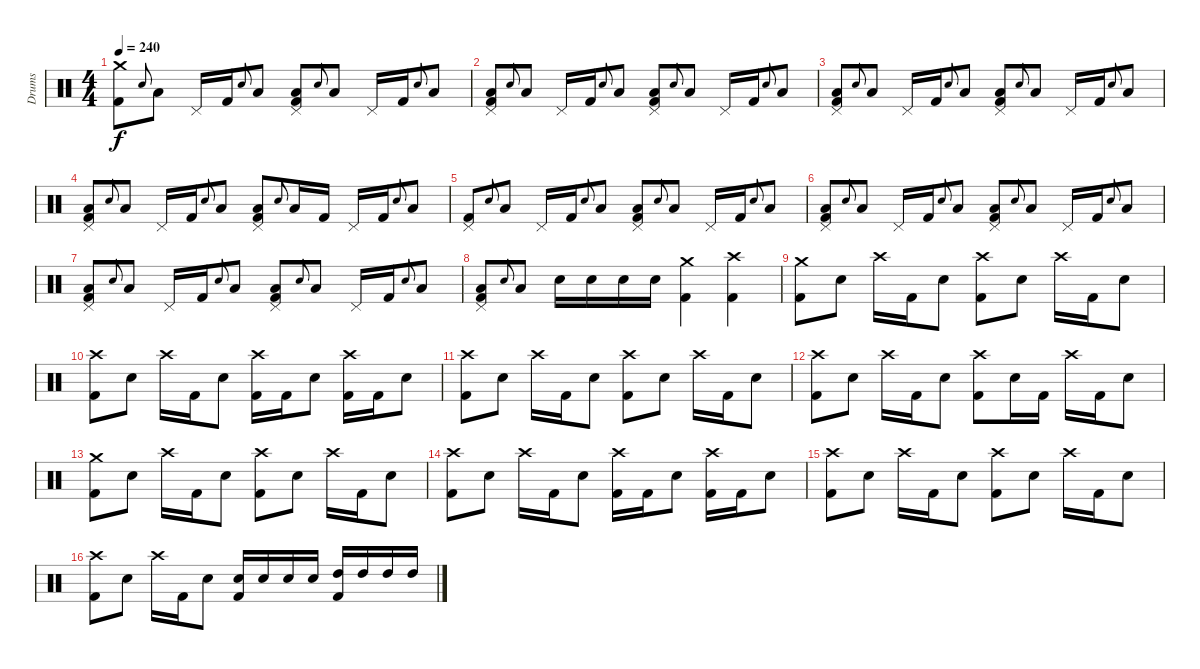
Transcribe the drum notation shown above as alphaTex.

\track ("Drums" "Drums") {instrument percussion}
\staff {score}
\articulation defaults
\ts (4 4)
\tempo 240
\clef neutral
\ks c
("Crash medium (hit)" "Kick (hit) 2").8{dy f} "Electric Snare (hit)".8{gr onbeat} "Low Tom (hit)".8 "Pedal Hi-Hat (hit)".16 "Kick (hit) 2".16 "Electric Snare (hit)".8{gr onbeat} "Low Tom (hit)".8 ("Pedal Hi-Hat (hit)" "Low Tom (hit)" "Kick (hit) 2").8 "Electric Snare (hit)".8{gr onbeat} "Low Tom (hit)".8 "Pedal Hi-Hat (hit)".16 "Kick (hit) 2".16 "Electric Snare (hit)".8{gr onbeat} "Low Tom (hit)".8 |
("Pedal Hi-Hat (hit)" "Low Tom (hit)" "Kick (hit) 2").8 "Electric Snare (hit)".8{gr onbeat} "Low Tom (hit)".8 "Pedal Hi-Hat (hit)".16 "Kick (hit) 2".16 "Electric Snare (hit)".8{gr onbeat} "Low Tom (hit)".8 ("Pedal Hi-Hat (hit)" "Low Tom (hit)" "Kick (hit) 2").8 "Electric Snare (hit)".8{gr onbeat} "Low Tom (hit)".8 "Pedal Hi-Hat (hit)".16 "Kick (hit) 2".16 "Electric Snare (hit)".8{gr onbeat} "Low Tom (hit)".8 |
("Pedal Hi-Hat (hit)" "Low Tom (hit)" "Kick (hit) 2").8 "Electric Snare (hit)".8{gr onbeat} "Low Tom (hit)".8 "Pedal Hi-Hat (hit)".16 "Kick (hit) 2".16 "Electric Snare (hit)".8{gr onbeat} "Low Tom (hit)".8 ("Pedal Hi-Hat (hit)" "Low Tom (hit)" "Kick (hit) 2").8 "Electric Snare (hit)".8{gr onbeat} "Low Tom (hit)".8 "Pedal Hi-Hat (hit)".16 "Kick (hit) 2".16 "Electric Snare (hit)".8{gr onbeat} "Low Tom (hit)".8 |
("Pedal Hi-Hat (hit)" "Low Tom (hit)" "Kick (hit) 2").8 "Electric Snare (hit)".8{gr onbeat} "Low Tom (hit)".8 "Pedal Hi-Hat (hit)".16 "Kick (hit) 2".16 "Electric Snare (hit)".8{gr onbeat} "Low Tom (hit)".8 ("Pedal Hi-Hat (hit)" "Low Tom (hit)" "Kick (hit) 2").8 "Electric Snare (hit)".8{gr onbeat} "Low Tom (hit)".16 "Kick (hit) 2".16 "Pedal Hi-Hat (hit)".16 "Kick (hit) 2".16 "Electric Snare (hit)".8{gr onbeat} "Low Tom (hit)".8 |
("Pedal Hi-Hat (hit)" "Kick (hit) 2").8 "Electric Snare (hit)".8{gr onbeat} "Low Tom (hit)".8 "Pedal Hi-Hat (hit)".16 "Kick (hit) 2".16 "Electric Snare (hit)".8{gr onbeat} "Low Tom (hit)".8 ("Pedal Hi-Hat (hit)" "Low Tom (hit)" "Kick (hit) 2").8 "Electric Snare (hit)".8{gr onbeat} "Low Tom (hit)".8 "Pedal Hi-Hat (hit)".16 "Kick (hit) 2".16 "Electric Snare (hit)".8{gr onbeat} "Low Tom (hit)".8 |
("Pedal Hi-Hat (hit)" "Low Tom (hit)" "Kick (hit) 2").8 "Electric Snare (hit)".8{gr onbeat} "Low Tom (hit)".8 "Pedal Hi-Hat (hit)".16 "Kick (hit) 2".16 "Electric Snare (hit)".8{gr onbeat} "Low Tom (hit)".8 ("Pedal Hi-Hat (hit)" "Low Tom (hit)" "Kick (hit) 2").8 "Electric Snare (hit)".8{gr onbeat} "Low Tom (hit)".8 "Pedal Hi-Hat (hit)".16 "Kick (hit) 2".16 "Electric Snare (hit)".8{gr onbeat} "Low Tom (hit)".8 |
("Pedal Hi-Hat (hit)" "Low Tom (hit)" "Kick (hit) 2").8 "Electric Snare (hit)".8{gr onbeat} "Low Tom (hit)".8 "Pedal Hi-Hat (hit)".16 "Kick (hit) 2".16 "Electric Snare (hit)".8{gr onbeat} "Low Tom (hit)".8 ("Pedal Hi-Hat (hit)" "Low Tom (hit)" "Kick (hit) 2").8 "Electric Snare (hit)".8{gr onbeat} "Low Tom (hit)".8 "Pedal Hi-Hat (hit)".16 "Kick (hit) 2".16 "Electric Snare (hit)".8{gr onbeat} "Low Tom (hit)".8 |
("Pedal Hi-Hat (hit)" "Low Tom (hit)" "Kick (hit) 2").8 "Electric Snare (hit)".8{gr onbeat} "Low Tom (hit)".8 "Electric Snare (hit)".16 "Electric Snare (hit)".16 "Electric Snare (hit)".16 "Electric Snare (hit)".16 ("Crash medium (hit)" "Kick (hit) 2").4 ("Crash high (hit)" "Kick (hit) 2").4 |
("Crash medium (hit)" "Kick (hit) 2").8 "Electric Snare (hit)".8 "Crash high (hit)".16 "Kick (hit) 2".16 "Electric Snare (hit)".8 ("Crash high (hit)" "Kick (hit) 2").8 "Electric Snare (hit)".8 "Crash high (hit)".16 "Kick (hit) 2".16 "Electric Snare (hit)".8 |
("Crash high (hit)" "Kick (hit) 2").8 "Electric Snare (hit)".8 "Crash high (hit)".16 "Kick (hit) 2".16 "Electric Snare (hit)".8 ("Crash high (hit)" "Kick (hit) 2").16 "Kick (hit) 2".16 "Electric Snare (hit)".8 ("Crash high (hit)" "Kick (hit) 2").16 "Kick (hit) 2".16 "Electric Snare (hit)".8 |
("Crash high (hit)" "Kick (hit) 2").8 "Electric Snare (hit)".8 "Crash high (hit)".16 "Kick (hit) 2".16 "Electric Snare (hit)".8 ("Crash high (hit)" "Kick (hit) 2").8 "Electric Snare (hit)".8 "Crash high (hit)".16 "Kick (hit) 2".16 "Electric Snare (hit)".8 |
("Crash high (hit)" "Kick (hit) 2").8 "Electric Snare (hit)".8 "Crash high (hit)".16 "Kick (hit) 2".16 "Electric Snare (hit)".8 ("Crash high (hit)" "Kick (hit) 2").8 "Electric Snare (hit)".16 "Kick (hit) 2".16 "Crash high (hit)".16 "Kick (hit) 2".16 "Electric Snare (hit)".8 |
("Crash medium (hit)" "Kick (hit) 2").8 "Electric Snare (hit)".8 "Crash high (hit)".16 "Kick (hit) 2".16 "Electric Snare (hit)".8 ("Crash high (hit)" "Kick (hit) 2").8 "Electric Snare (hit)".8 "Crash high (hit)".16 "Kick (hit) 2".16 "Electric Snare (hit)".8 |
("Crash high (hit)" "Kick (hit) 2").8 "Electric Snare (hit)".8 "Crash high (hit)".16 "Kick (hit) 2".16 "Electric Snare (hit)".8 ("Crash high (hit)" "Kick (hit) 2").16 "Kick (hit) 2".16 "Electric Snare (hit)".8 ("Crash high (hit)" "Kick (hit) 2").16 "Kick (hit) 2".16 "Electric Snare (hit)".8 |
("Crash high (hit)" "Kick (hit) 2").8 "Electric Snare (hit)".8 "Crash high (hit)".16 "Kick (hit) 2".16 "Electric Snare (hit)".8 ("Crash high (hit)" "Kick (hit) 2").8 "Electric Snare (hit)".8 "Crash high (hit)".16 "Kick (hit) 2".16 "Electric Snare (hit)".8 |
("Crash high (hit)" "Kick (hit) 2").8 "Electric Snare (hit)".8 "Crash high (hit)".16 "Kick (hit) 2".16 "Electric Snare (hit)".8 ("Electric Snare (hit)" "Kick (hit) 2").16 "Electric Snare (hit)".16 "Electric Snare (hit)".16 "Electric Snare (hit)".16 ("High Tom (hit)" "Kick (hit) 2").16 "High Tom (hit)".16 "High Tom (hit)".16 "High Tom (hit)".16
